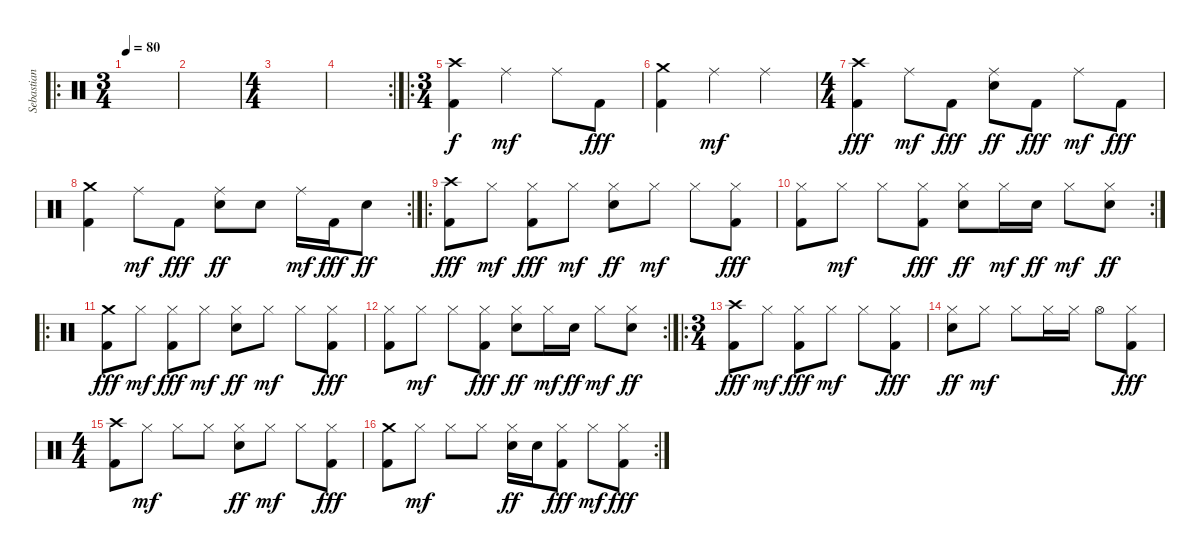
\track ("Sebastian" "Sebastian") {instrument percussion}
\staff {score}
\articulation defaults
\ro
\ts (3 4)
\tempo 80
\clef neutral
\ks c
|
|
\ts (4 4)
|
\rc 2
|
\ro
\ts (3 4)
("Crash high (hit)" "Kick (hit) 2").4 "Ride (middle)".4{dy mf} "Ride (middle)".8 "Kick (hit) 2".8{dy fff} |
("Crash medium (hit)" "Kick (hit) 2").4 "Ride (middle)".4{dy mf} "Ride (middle)".4 |
\ts (4 4)
("Crash high (hit)" "Kick (hit) 2").4{dy fff} "Ride (middle)".8{dy mf} "Kick (hit) 2".8{dy fff} ("Ride (middle)" "Electric Snare (hit)").8{dy ff} "Kick (hit) 2".8{dy fff} "Ride (middle)".8{dy mf} "Kick (hit) 2".8{dy fff} |
\rc 2
("Crash medium (hit)" "Kick (hit) 2").4 "Ride (middle)".8{dy mf} "Kick (hit) 2".8{dy fff} ("Ride (middle)" "Electric Snare (hit)").8{dy ff} "Electric Snare (hit)".8 "Ride (middle)".16{dy mf} "Kick (hit) 2".16{dy fff} "Electric Snare (hit)".8{dy ff} |
\ro
("Crash high (hit)" "Kick (hit) 2").8{dy fff} "Hi-Hat (closed)".8{dy mf} ("Hi-Hat (closed)" "Kick (hit) 2").8{dy fff} "Hi-Hat (closed)".8{dy mf} ("Hi-Hat (closed)" "Electric Snare (hit)").8{dy ff} "Hi-Hat (closed)".8{dy mf} "Hi-Hat (closed)".8 ("Hi-Hat (closed)" "Kick (hit) 2").8{dy fff} |
\rc 2
("Hi-Hat (closed)" "Kick (hit) 2").8 "Hi-Hat (closed)".8{dy mf} "Hi-Hat (closed)".8 ("Hi-Hat (closed)" "Kick (hit) 2").8{dy fff} ("Hi-Hat (closed)" "Electric Snare (hit)").8{dy ff} "Hi-Hat (closed)".16{dy mf} "Electric Snare (hit)".16{dy ff} "Hi-Hat (closed)".8{dy mf} ("Hi-Hat (closed)" "Electric Snare (hit)").8{dy ff} |
\ro
("Crash medium (hit)" "Kick (hit) 2").8{dy fff} "Hi-Hat (closed)".8{dy mf} ("Hi-Hat (closed)" "Kick (hit) 2").8{dy fff} "Hi-Hat (closed)".8{dy mf} ("Hi-Hat (closed)" "Electric Snare (hit)").8{dy ff} "Hi-Hat (closed)".8{dy mf} "Hi-Hat (closed)".8 ("Hi-Hat (closed)" "Kick (hit) 2").8{dy fff} |
\rc 2
("Hi-Hat (closed)" "Kick (hit) 2").8 "Hi-Hat (closed)".8{dy mf} "Hi-Hat (closed)".8 ("Hi-Hat (closed)" "Kick (hit) 2").8{dy fff} ("Hi-Hat (closed)" "Electric Snare (hit)").8{dy ff} "Hi-Hat (closed)".16{dy mf} "Electric Snare (hit)".16{dy ff} "Hi-Hat (closed)".8{dy mf} ("Hi-Hat (closed)" "Electric Snare (hit)").8{dy ff} |
\ro
\ts (3 4)
("Crash high (hit)" "Kick (hit) 2").8{dy fff} "Hi-Hat (closed)".8{dy mf} ("Hi-Hat (closed)" "Kick (hit) 2").8{dy fff} "Hi-Hat (closed)".8{dy mf} "Hi-Hat (closed)".8 ("Hi-Hat (closed)" "Kick (hit) 2").8{dy fff} |
("Hi-Hat (closed)" "Electric Snare (hit)").8{dy ff} "Hi-Hat (closed)".8{dy mf} "Hi-Hat (closed)".8 "Hi-Hat (closed)".16 "Hi-Hat (closed)".16 "Hi-Hat (open)".8 ("Hi-Hat (closed)" "Kick (hit) 2").8{dy fff} |
\ts (4 4)
("Crash high (hit)" "Kick (hit) 2").8 "Hi-Hat (closed)".8{dy mf} "Hi-Hat (closed)".8 "Hi-Hat (closed)".8 ("Hi-Hat (closed)" "Electric Snare (hit)").8{dy ff} "Hi-Hat (closed)".8{dy mf} "Hi-Hat (closed)".8 ("Hi-Hat (closed)" "Kick (hit) 2").8{dy fff} |
\rc 2
("Crash medium (hit)" "Kick (hit) 2").8 "Hi-Hat (closed)".8{dy mf} "Hi-Hat (closed)".8 "Hi-Hat (closed)".8 ("Hi-Hat (closed)" "Electric Snare (hit)").16{dy ff} "Electric Snare (hit)".16 ("Hi-Hat (closed)" "Kick (hit) 2").8{dy fff} "Hi-Hat (closed)".8{dy mf} ("Hi-Hat (closed)" "Kick (hit) 2").8{dy fff}
